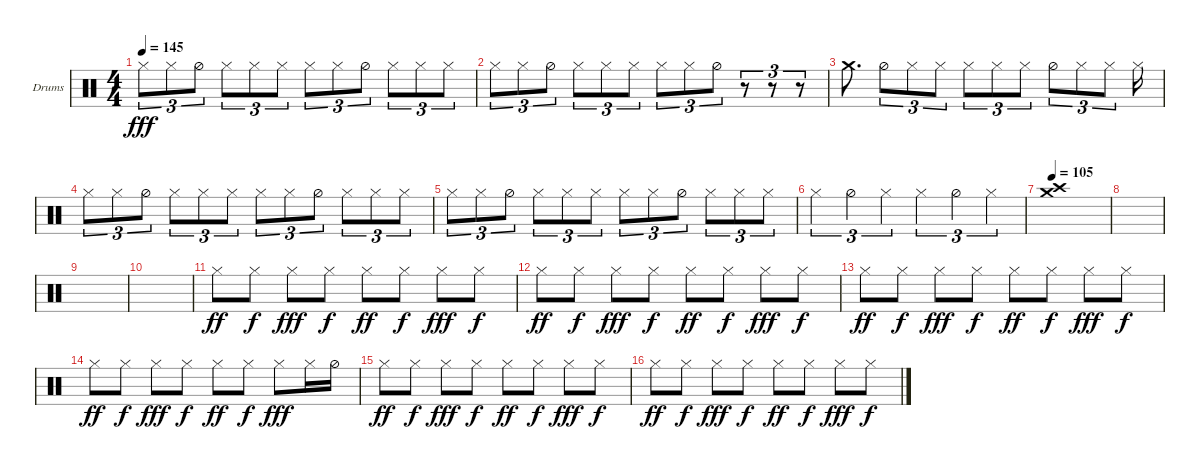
\defaultSystemsLayout 4
\bracketExtendMode groupsimilarinstruments
\firstSystemTrackNameOrientation horizontal
\otherSystemsTrackNameOrientation horizontal
\track ("Helders" "Drums") {instrument percussion}
\staff {score}
\articulation defaults
\ts (4 4)
\tempo 145
\clef neutral
\ks c "Hi-Hat (closed)".8{tu (3 2) dy fff} "Hi-Hat (closed)".8{tu (3 2)} "Hi-Hat (half)".8{tu (3 2)} "Hi-Hat (closed)".8{tu (3 2)} "Hi-Hat (closed)".8{tu (3 2)} "Hi-Hat (closed)".8{tu (3 2)} "Hi-Hat (closed)".8{tu (3 2)} "Hi-Hat (closed)".8{tu (3 2)} "Hi-Hat (half)".8{tu (3 2)} "Hi-Hat (closed)".8{tu (3 2)} "Hi-Hat (closed)".8{tu (3 2)} "Hi-Hat (closed)".8{tu (3 2)}
|
"Hi-Hat (closed)".8{tu (3 2)} "Hi-Hat (closed)".8{tu (3 2)} "Hi-Hat (half)".8{tu (3 2)} "Hi-Hat (closed)".8{tu (3 2)} "Hi-Hat (closed)".8{tu (3 2)} "Hi-Hat (closed)".8{tu (3 2)} "Hi-Hat (closed)".8{tu (3 2)} "Hi-Hat (closed)".8{tu (3 2)} "Hi-Hat (half)".8{tu (3 2)} r.8{tu (3 2)} r.8{tu (3 2)} r.8{tu (3 2)} |
"Crash medium (hit)".8{d} "Hi-Hat (half)".8{tu (3 2)} "Hi-Hat (closed)".8{tu (3 2)} "Hi-Hat (closed)".8{tu (3 2)} "Hi-Hat (closed)".8{tu (3 2)} "Hi-Hat (closed)".8{tu (3 2)} "Hi-Hat (closed)".8{tu (3 2)} "Hi-Hat (half)".8{tu (3 2)} "Hi-Hat (closed)".8{tu (3 2)} "Hi-Hat (closed)".8{tu (3 2)} "Hi-Hat (closed)".16 |
"Hi-Hat (closed)".8{tu (3 2)} "Hi-Hat (closed)".8{tu (3 2)} "Hi-Hat (half)".8{tu (3 2)} "Hi-Hat (closed)".8{tu (3 2)} "Hi-Hat (closed)".8{tu (3 2)} "Hi-Hat (closed)".8{tu (3 2)} "Hi-Hat (closed)".8{tu (3 2)} "Hi-Hat (closed)".8{tu (3 2)} "Hi-Hat (half)".8{tu (3 2)} "Hi-Hat (closed)".8{tu (3 2)} "Hi-Hat (closed)".8{tu (3 2)} "Hi-Hat (closed)".8{tu (3 2)} |
"Hi-Hat (closed)".8{tu (3 2)} "Hi-Hat (closed)".8{tu (3 2)} "Hi-Hat (half)".8{tu (3 2)} "Hi-Hat (closed)".8{tu (3 2)} "Hi-Hat (closed)".8{tu (3 2)} "Hi-Hat (closed)".8{tu (3 2)} "Hi-Hat (closed)".8{tu (3 2)} "Hi-Hat (closed)".8{tu (3 2)} "Hi-Hat (half)".8{tu (3 2)} "Hi-Hat (closed)".8{tu (3 2)} "Hi-Hat (closed)".8{tu (3 2)} "Hi-Hat (closed)".8{tu (3 2)} |
"Hi-Hat (closed)".4{tu (3 2)} "Hi-Hat (half)".4{tu (3 2)} "Hi-Hat (closed)".4{tu (3 2)} "Hi-Hat (closed)".4{tu (3 2)} "Hi-Hat (half)".4{tu (3 2)} "Hi-Hat (closed)".4{tu (3 2)} |
\tempo 105
("Crash high (hit)" "Crash medium (hit)").1 |
|
|
|
"Hi-Hat (closed)".8{dy ff} "Hi-Hat (closed)".8{dy f} "Hi-Hat (closed)".8{dy fff} "Hi-Hat (closed)".8{dy f} "Hi-Hat (closed)".8{dy ff} "Hi-Hat (closed)".8{dy f} "Hi-Hat (closed)".8{dy fff} "Hi-Hat (closed)".8{dy f} |
"Hi-Hat (closed)".8{dy ff} "Hi-Hat (closed)".8{dy f} "Hi-Hat (closed)".8{dy fff} "Hi-Hat (closed)".8{dy f} "Hi-Hat (closed)".8{dy ff} "Hi-Hat (closed)".8{dy f} "Hi-Hat (closed)".8{dy fff} "Hi-Hat (closed)".8{dy f} |
"Hi-Hat (closed)".8{dy ff} "Hi-Hat (closed)".8{dy f} "Hi-Hat (closed)".8{dy fff} "Hi-Hat (closed)".8{dy f} "Hi-Hat (closed)".8{dy ff} "Hi-Hat (closed)".8{dy f} "Hi-Hat (closed)".8{dy fff} "Hi-Hat (closed)".8{dy f} |
"Hi-Hat (closed)".8{dy ff} "Hi-Hat (closed)".8{dy f} "Hi-Hat (closed)".8{dy fff} "Hi-Hat (closed)".8{dy f} "Hi-Hat (closed)".8{dy ff} "Hi-Hat (closed)".8{dy f} "Hi-Hat (closed)".8{dy fff} "Hi-Hat (closed)".16 "Hi-Hat (half)".16 |
"Hi-Hat (closed)".8{dy ff} "Hi-Hat (closed)".8{dy f} "Hi-Hat (closed)".8{dy fff} "Hi-Hat (closed)".8{dy f} "Hi-Hat (closed)".8{dy ff} "Hi-Hat (closed)".8{dy f} "Hi-Hat (closed)".8{dy fff} "Hi-Hat (closed)".8{dy f} |
"Hi-Hat (closed)".8{dy ff} "Hi-Hat (closed)".8{dy f} "Hi-Hat (closed)".8{dy fff} "Hi-Hat (closed)".8{dy f} "Hi-Hat (closed)".8{dy ff} "Hi-Hat (closed)".8{dy f} "Hi-Hat (closed)".8{dy fff} "Hi-Hat (closed)".8{dy f}
